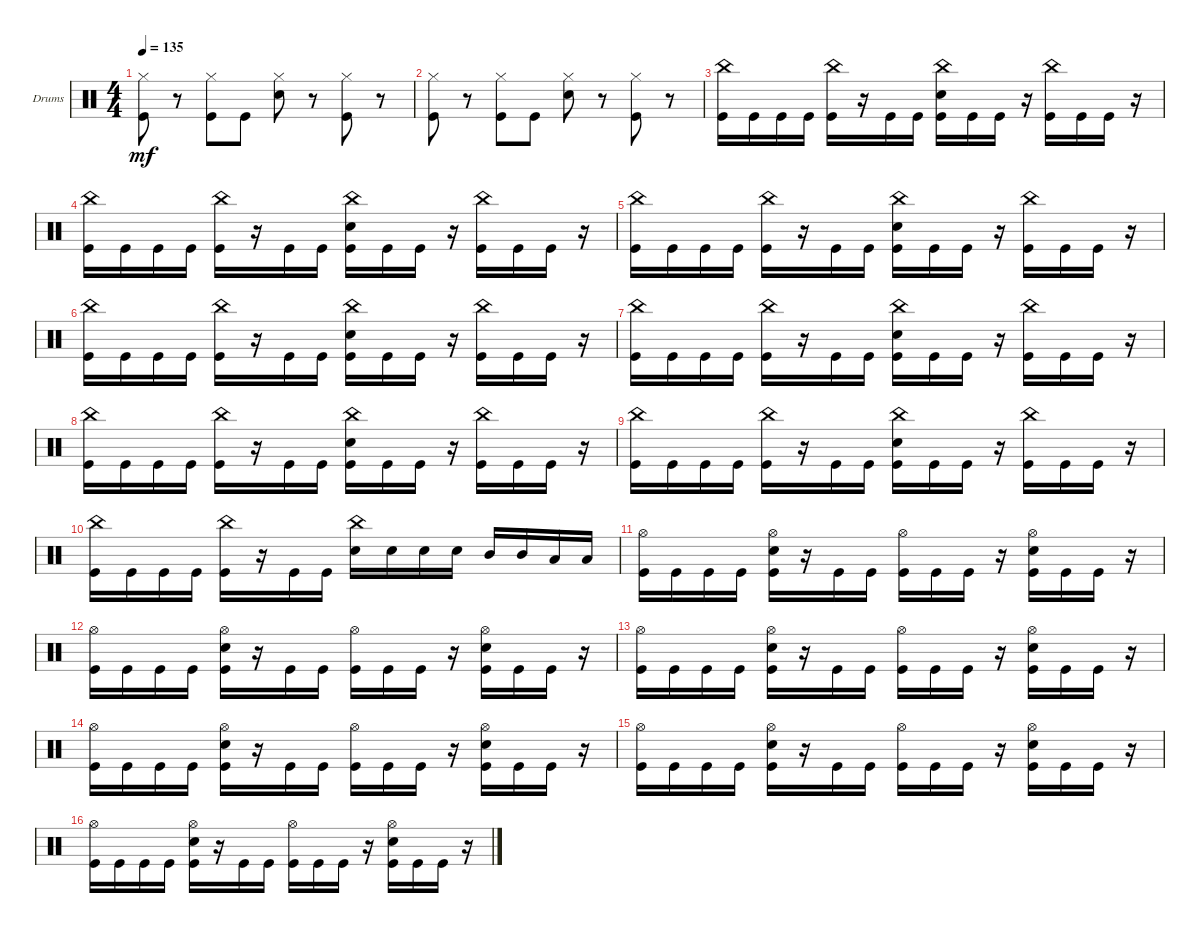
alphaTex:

\defaultSystemsLayout 4
\bracketExtendMode groupsimilarinstruments
\firstSystemTrackNameOrientation horizontal
\otherSystemsTrackNameOrientation horizontal
\track ("Rolo" "Drums") {instrument percussion}
\staff {score}
\articulation defaults
\ts (4 4)
\tempo 135
\clef neutral
\ks c
("Kick (hit)" "Hi-Hat (closed)").8{dy mf} r.8 ("Kick (hit)" "Hi-Hat (closed)").8 "Kick (hit)".8 ("Snare (hit) 2" "Hi-Hat (closed)").8 r.8 ("Kick (hit)" "Hi-Hat (closed)").8 r.8 |
("Kick (hit)" "Hi-Hat (closed)").8 r.8 ("Kick (hit)" "Hi-Hat (closed)").8 "Kick (hit)".8 ("Snare (hit) 2" "Hi-Hat (closed)").8 r.8 ("Kick (hit)" "Hi-Hat (closed)").8 r.8 |
("Kick (hit)" "China (hit)").16 "Kick (hit)".16 "Kick (hit)".16 "Kick (hit)".16 ("Kick (hit)" "China (hit)").16 r.16 "Kick (hit)".16 "Kick (hit)".16 ("Kick (hit)" "Snare (hit) 2" "China (hit)").16 "Kick (hit)".16 "Kick (hit)".16 r.16 ("Kick (hit)" "China (hit)").16 "Kick (hit)".16 "Kick (hit)".16 r.16 |
("Kick (hit)" "China (hit)").16 "Kick (hit)".16 "Kick (hit)".16 "Kick (hit)".16 ("Kick (hit)" "China (hit)").16 r.16 "Kick (hit)".16 "Kick (hit)".16 ("Kick (hit)" "Snare (hit) 2" "China (hit)").16 "Kick (hit)".16 "Kick (hit)".16 r.16 ("Kick (hit)" "China (hit)").16 "Kick (hit)".16 "Kick (hit)".16 r.16 |
("Kick (hit)" "China (hit)").16 "Kick (hit)".16 "Kick (hit)".16 "Kick (hit)".16 ("Kick (hit)" "China (hit)").16 r.16 "Kick (hit)".16 "Kick (hit)".16 ("Kick (hit)" "Snare (hit) 2" "China (hit)").16 "Kick (hit)".16 "Kick (hit)".16 r.16 ("Kick (hit)" "China (hit)").16 "Kick (hit)".16 "Kick (hit)".16 r.16 |
("Kick (hit)" "China (hit)").16 "Kick (hit)".16 "Kick (hit)".16 "Kick (hit)".16 ("Kick (hit)" "China (hit)").16 r.16 "Kick (hit)".16 "Kick (hit)".16 ("Kick (hit)" "Snare (hit) 2" "China (hit)").16 "Kick (hit)".16 "Kick (hit)".16 r.16 ("Kick (hit)" "China (hit)").16 "Kick (hit)".16 "Kick (hit)".16 r.16 |
("Kick (hit)" "China (hit)").16 "Kick (hit)".16 "Kick (hit)".16 "Kick (hit)".16 ("Kick (hit)" "China (hit)").16 r.16 "Kick (hit)".16 "Kick (hit)".16 ("Kick (hit)" "Snare (hit) 2" "China (hit)").16 "Kick (hit)".16 "Kick (hit)".16 r.16 ("Kick (hit)" "China (hit)").16 "Kick (hit)".16 "Kick (hit)".16 r.16 |
("Kick (hit)" "China (hit)").16 "Kick (hit)".16 "Kick (hit)".16 "Kick (hit)".16 ("Kick (hit)" "China (hit)").16 r.16 "Kick (hit)".16 "Kick (hit)".16 ("Kick (hit)" "Snare (hit) 2" "China (hit)").16 "Kick (hit)".16 "Kick (hit)".16 r.16 ("Kick (hit)" "China (hit)").16 "Kick (hit)".16 "Kick (hit)".16 r.16 |
("Kick (hit)" "China (hit)").16 "Kick (hit)".16 "Kick (hit)".16 "Kick (hit)".16 ("Kick (hit)" "China (hit)").16 r.16 "Kick (hit)".16 "Kick (hit)".16 ("Kick (hit)" "Snare (hit) 2" "China (hit)").16 "Kick (hit)".16 "Kick (hit)".16 r.16 ("Kick (hit)" "China (hit)").16 "Kick (hit)".16 "Kick (hit)".16 r.16 |
("Kick (hit)" "China (hit)").16 "Kick (hit)".16 "Kick (hit)".16 "Kick (hit)".16 ("Kick (hit)" "China (hit)").16 r.16 "Kick (hit)".16 "Kick (hit)".16 ("Snare (hit) 2" "China (hit)").16 "Snare (hit) 2".16 "Snare (hit) 2".16 "Snare (hit) 2".16 "Mid Tom (hit)".16 "Mid Tom (hit)".16 "Low Tom (hit)".16 "Low Tom (hit)".16 |
("Kick (hit)" "Hi-Hat (open)").16 "Kick (hit)".16 "Kick (hit)".16 "Kick (hit)".16 ("Kick (hit)" "Snare (hit) 2" "Hi-Hat (open)").16 r.16 "Kick (hit)".16 "Kick (hit)".16 ("Kick (hit)" "Hi-Hat (open)").16 "Kick (hit)".16 "Kick (hit)".16 r.16 ("Kick (hit)" "Snare (hit) 2" "Hi-Hat (open)").16 "Kick (hit)".16 "Kick (hit)".16 r.16 |
("Kick (hit)" "Hi-Hat (open)").16 "Kick (hit)".16 "Kick (hit)".16 "Kick (hit)".16 ("Kick (hit)" "Snare (hit) 2" "Hi-Hat (open)").16 r.16 "Kick (hit)".16 "Kick (hit)".16 ("Kick (hit)" "Hi-Hat (open)").16 "Kick (hit)".16 "Kick (hit)".16 r.16 ("Kick (hit)" "Snare (hit) 2" "Hi-Hat (open)").16 "Kick (hit)".16 "Kick (hit)".16 r.16 |
("Kick (hit)" "Hi-Hat (open)").16 "Kick (hit)".16 "Kick (hit)".16 "Kick (hit)".16 ("Kick (hit)" "Snare (hit) 2" "Hi-Hat (open)").16 r.16 "Kick (hit)".16 "Kick (hit)".16 ("Kick (hit)" "Hi-Hat (open)").16 "Kick (hit)".16 "Kick (hit)".16 r.16 ("Kick (hit)" "Snare (hit) 2" "Hi-Hat (open)").16 "Kick (hit)".16 "Kick (hit)".16 r.16 |
("Kick (hit)" "Hi-Hat (open)").16 "Kick (hit)".16 "Kick (hit)".16 "Kick (hit)".16 ("Kick (hit)" "Snare (hit) 2" "Hi-Hat (open)").16 r.16 "Kick (hit)".16 "Kick (hit)".16 ("Kick (hit)" "Hi-Hat (open)").16 "Kick (hit)".16 "Kick (hit)".16 r.16 ("Kick (hit)" "Snare (hit) 2" "Hi-Hat (open)").16 "Kick (hit)".16 "Kick (hit)".16 r.16 |
("Kick (hit)" "Hi-Hat (open)").16 "Kick (hit)".16 "Kick (hit)".16 "Kick (hit)".16 ("Kick (hit)" "Snare (hit) 2" "Hi-Hat (open)").16 r.16 "Kick (hit)".16 "Kick (hit)".16 ("Kick (hit)" "Hi-Hat (open)").16 "Kick (hit)".16 "Kick (hit)".16 r.16 ("Kick (hit)" "Snare (hit) 2" "Hi-Hat (open)").16 "Kick (hit)".16 "Kick (hit)".16 r.16 |
("Kick (hit)" "Hi-Hat (open)").16 "Kick (hit)".16 "Kick (hit)".16 "Kick (hit)".16 ("Kick (hit)" "Snare (hit) 2" "Hi-Hat (open)").16 r.16 "Kick (hit)".16 "Kick (hit)".16 ("Kick (hit)" "Hi-Hat (open)").16 "Kick (hit)".16 "Kick (hit)".16 r.16 ("Kick (hit)" "Snare (hit) 2" "Hi-Hat (open)").16 "Kick (hit)".16 "Kick (hit)".16 r.16
